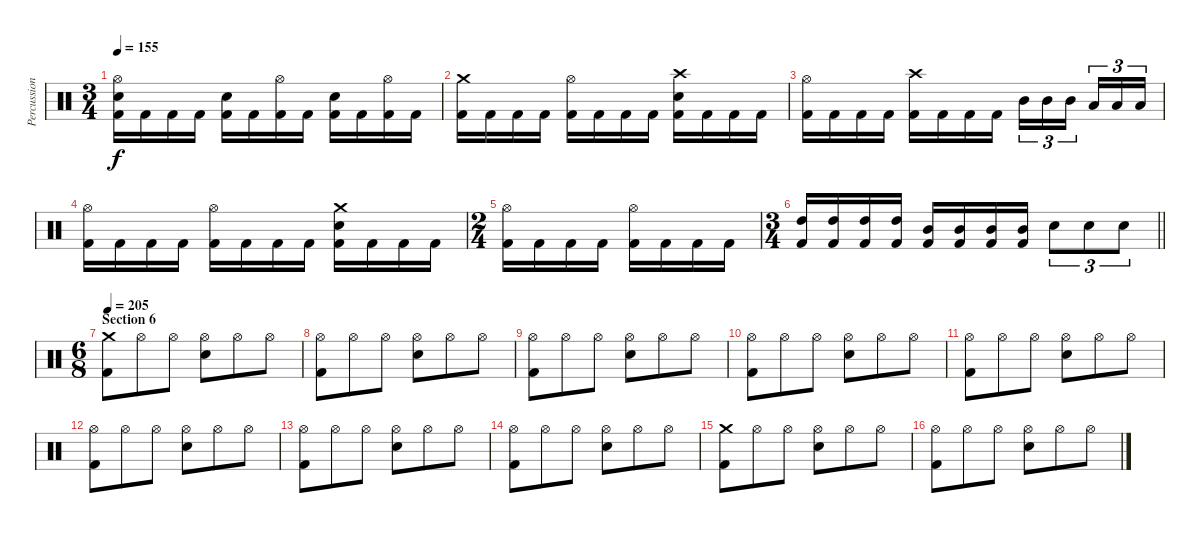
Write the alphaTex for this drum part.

\track ("Percussion" "Percussion") {instrument percussion}
\staff {score}
\articulation defaults
\ts (3 4)
\tempo 155
\clef neutral
\ks c
("Hi-Hat (open)" "Electric Snare (hit)" "Kick (hit) 2").16{dy f} "Kick (hit) 2".16 "Kick (hit) 2".16 "Kick (hit) 2".16 ("Electric Snare (hit)" "Kick (hit) 2").16 "Kick (hit) 2".16 ("Hi-Hat (open)" "Kick (hit) 2").16 "Kick (hit) 2".16 ("Electric Snare (hit)" "Kick (hit) 2").16 "Kick (hit) 2".16 ("Hi-Hat (open)" "Kick (hit) 2").16 "Kick (hit) 2".16 |
("Crash medium (hit)" "Kick (hit) 2").16 "Kick (hit) 2".16 "Kick (hit) 2".16 "Kick (hit) 2".16 ("Hi-Hat (open)" "Kick (hit) 2").16 "Kick (hit) 2".16 "Kick (hit) 2".16 "Kick (hit) 2".16 ("Crash high (hit)" "Electric Snare (hit)" "Kick (hit) 2").16 "Kick (hit) 2".16 "Kick (hit) 2".16 "Kick (hit) 2".16 |
("Hi-Hat (open)" "Kick (hit) 2").16 "Kick (hit) 2".16 "Kick (hit) 2".16 "Kick (hit) 2".16 ("Crash high (hit)" "Kick (hit) 2").16 "Kick (hit) 2".16 "Kick (hit) 2".16 "Kick (hit) 2".16 "Mid Tom (hit)".16{tu (3 2)} "Mid Tom (hit)".16{tu (3 2)} "Mid Tom (hit)".16{tu (3 2)} "Low Tom (hit)".16{tu (3 2)} "Low Tom (hit)".16{tu (3 2)} "Low Tom (hit)".16{tu (3 2)} |
("Hi-Hat (open)" "Kick (hit) 2").16 "Kick (hit) 2".16 "Kick (hit) 2".16 "Kick (hit) 2".16 ("Hi-Hat (open)" "Kick (hit) 2").16 "Kick (hit) 2".16 "Kick (hit) 2".16 "Kick (hit) 2".16 ("Crash medium (hit)" "Electric Snare (hit)" "Kick (hit) 2").16 "Kick (hit) 2".16 "Kick (hit) 2".16 "Kick (hit) 2".16 |
\ts (2 4)
("Hi-Hat (open)" "Kick (hit) 2").16 "Kick (hit) 2".16 "Kick (hit) 2".16 "Kick (hit) 2".16 ("Hi-Hat (open)" "Kick (hit) 2").16 "Kick (hit) 2".16 "Kick (hit) 2".16 "Kick (hit) 2".16 |
\ts (3 4)
\barLineRight lightlight
("High Tom (hit)" "Kick (hit) 2").16 ("High Tom (hit)" "Kick (hit) 2").16 ("High Tom (hit)" "Kick (hit) 2").16 ("High Tom (hit)" "Kick (hit) 2").16 ("Mid Tom (hit)" "Kick (hit) 2").16 ("Mid Tom (hit)" "Kick (hit) 2").16 ("Mid Tom (hit)" "Kick (hit) 2").16 ("Mid Tom (hit)" "Kick (hit) 2").16 "Electric Snare (hit)".8{tu (3 2)} "Electric Snare (hit)".8{tu (3 2)} "Electric Snare (hit)".8{tu (3 2)} |
\ts (6 8)
\section ("" "Section 6")
\tempo 205
("Crash medium (hit)" "Kick (hit) 2").8 "Hi-Hat (open)".8 "Hi-Hat (open)".8 ("Hi-Hat (open)" "Electric Snare (hit)").8 "Hi-Hat (open)".8 "Hi-Hat (open)".8 |
("Hi-Hat (open)" "Kick (hit) 2").8 "Hi-Hat (open)".8 "Hi-Hat (open)".8 ("Hi-Hat (open)" "Electric Snare (hit)").8 "Hi-Hat (open)".8 "Hi-Hat (open)".8 |
("Hi-Hat (open)" "Kick (hit) 2").8 "Hi-Hat (open)".8 "Hi-Hat (open)".8 ("Hi-Hat (open)" "Electric Snare (hit)").8 "Hi-Hat (open)".8 "Hi-Hat (open)".8 |
("Hi-Hat (open)" "Kick (hit) 2").8 "Hi-Hat (open)".8 "Hi-Hat (open)".8 ("Hi-Hat (open)" "Electric Snare (hit)").8 "Hi-Hat (open)".8 "Hi-Hat (open)".8 |
("Hi-Hat (open)" "Kick (hit) 2").8 "Hi-Hat (open)".8 "Hi-Hat (open)".8 ("Hi-Hat (open)" "Electric Snare (hit)").8 "Hi-Hat (open)".8 "Hi-Hat (open)".8 |
("Hi-Hat (open)" "Kick (hit) 2").8 "Hi-Hat (open)".8 "Hi-Hat (open)".8 ("Hi-Hat (open)" "Electric Snare (hit)").8 "Hi-Hat (open)".8 "Hi-Hat (open)".8 |
("Hi-Hat (open)" "Kick (hit) 2").8 "Hi-Hat (open)".8 "Hi-Hat (open)".8 ("Hi-Hat (open)" "Electric Snare (hit)").8 "Hi-Hat (open)".8 "Hi-Hat (open)".8 |
("Hi-Hat (open)" "Kick (hit) 2").8 "Hi-Hat (open)".8 "Hi-Hat (open)".8 ("Hi-Hat (open)" "Electric Snare (hit)").8 "Hi-Hat (open)".8 "Hi-Hat (open)".8 |
("Crash medium (hit)" "Kick (hit) 2").8 "Hi-Hat (open)".8 "Hi-Hat (open)".8 ("Hi-Hat (open)" "Electric Snare (hit)").8 "Hi-Hat (open)".8 "Hi-Hat (open)".8 |
("Hi-Hat (open)" "Kick (hit) 2").8 "Hi-Hat (open)".8 "Hi-Hat (open)".8 ("Hi-Hat (open)" "Electric Snare (hit)").8 "Hi-Hat (open)".8 "Hi-Hat (open)".8
